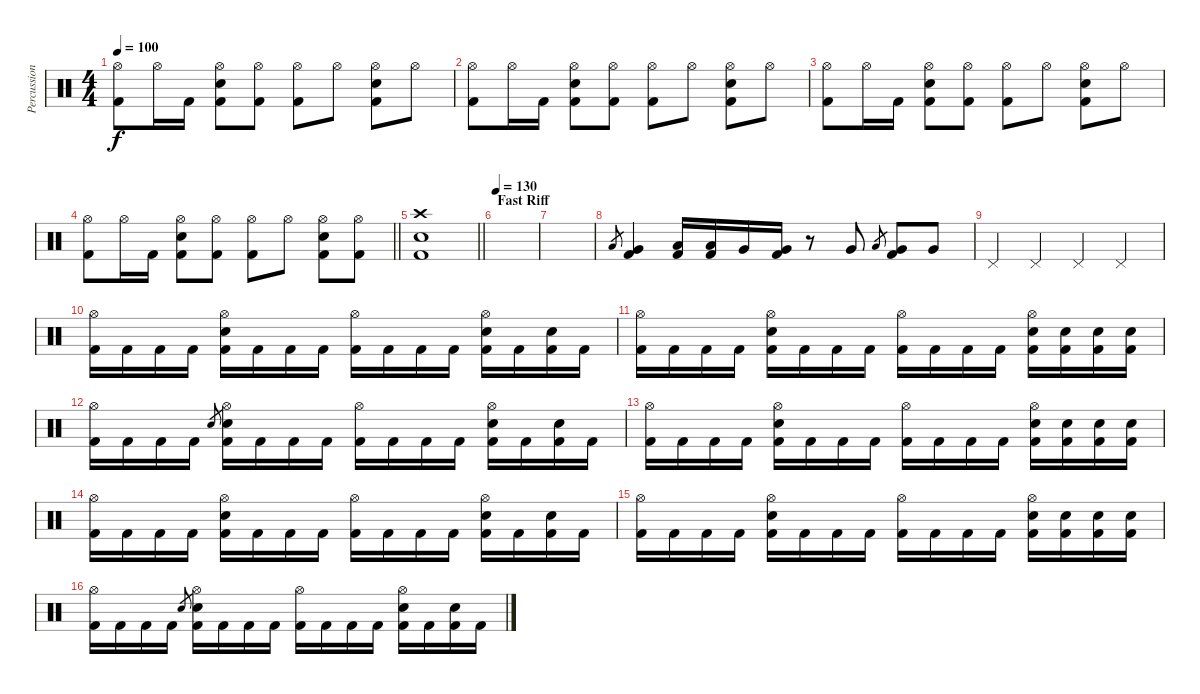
\track ("Percussion" "Percussion") {instrument percussion}
\staff {score}
\articulation defaults
\ts (4 4)
\tempo 100
\clef neutral
\ks c
("Hi-Hat (open)" "Kick (hit) 2").8{dy f} "Hi-Hat (open)".16 "Kick (hit) 2".16 ("Hi-Hat (open)" "Electric Snare (hit)" "Kick (hit) 2").8 ("Hi-Hat (open)" "Kick (hit) 2").8 ("Hi-Hat (open)" "Kick (hit) 2").8 "Hi-Hat (open)".8 ("Hi-Hat (open)" "Electric Snare (hit)" "Kick (hit) 2").8 "Hi-Hat (open)".8 |
("Hi-Hat (open)" "Kick (hit) 2").8 "Hi-Hat (open)".16 "Kick (hit) 2".16 ("Hi-Hat (open)" "Electric Snare (hit)" "Kick (hit) 2").8 ("Hi-Hat (open)" "Kick (hit) 2").8 ("Hi-Hat (open)" "Kick (hit) 2").8 "Hi-Hat (open)".8 ("Hi-Hat (open)" "Electric Snare (hit)" "Kick (hit) 2").8 "Hi-Hat (open)".8 |
("Hi-Hat (open)" "Kick (hit) 2").8 "Hi-Hat (open)".16 "Kick (hit) 2".16 ("Hi-Hat (open)" "Electric Snare (hit)" "Kick (hit) 2").8 ("Hi-Hat (open)" "Kick (hit) 2").8 ("Hi-Hat (open)" "Kick (hit) 2").8 "Hi-Hat (open)".8 ("Hi-Hat (open)" "Electric Snare (hit)" "Kick (hit) 2").8 "Hi-Hat (open)".8 |
\barLineRight lightlight
("Hi-Hat (open)" "Kick (hit) 2").8 "Hi-Hat (open)".16 "Kick (hit) 2".16 ("Hi-Hat (open)" "Electric Snare (hit)" "Kick (hit) 2").8 ("Hi-Hat (open)" "Kick (hit) 2").8 ("Hi-Hat (open)" "Kick (hit) 2").8 "Hi-Hat (open)".8 ("Hi-Hat (open)" "Electric Snare (hit)" "Kick (hit) 2").8 ("Hi-Hat (open)" "Kick (hit) 2").8 |
\barLineRight lightlight
("Crash high (hit)" "Electric Snare (hit)" "Kick (hit) 2").1 |
\section ("" "Fast Riff")
\tempo 130
|
|
"Low Tom (hit)".8{gr} ("Very Low Tom (hit)" "Kick (hit) 2").4 ("Low Tom (hit)" "Kick (hit) 2").16 ("Low Tom (hit)" "Kick (hit) 2").16 "Very Low Tom (hit)".16 ("Very Low Tom (hit)" "Kick (hit) 2").16 r.8 "Very Low Tom (hit)".8 "Low Tom (hit)".8{gr} ("Very Low Tom (hit)" "Kick (hit) 2").8 "Very Low Tom (hit)".8 |
"Pedal Hi-Hat (hit)".4 "Pedal Hi-Hat (hit)".4 "Pedal Hi-Hat (hit)".4 "Pedal Hi-Hat (hit)".4 |
("Hi-Hat (open)" "Kick (hit) 2").16 "Kick (hit) 2".16 "Kick (hit) 2".16 "Kick (hit) 2".16 ("Hi-Hat (open)" "Electric Snare (hit)" "Kick (hit) 2").16 "Kick (hit) 2".16 "Kick (hit) 2".16 "Kick (hit) 2".16 ("Hi-Hat (open)" "Kick (hit) 2").16 "Kick (hit) 2".16 "Kick (hit) 2".16 "Kick (hit) 2".16 ("Hi-Hat (open)" "Electric Snare (hit)" "Kick (hit) 2").16 "Kick (hit) 2".16 ("Electric Snare (hit)" "Kick (hit) 2").16 "Kick (hit) 2".16 |
("Hi-Hat (open)" "Kick (hit) 2").16 "Kick (hit) 2".16 "Kick (hit) 2".16 "Kick (hit) 2".16 ("Hi-Hat (open)" "Electric Snare (hit)" "Kick (hit) 2").16 "Kick (hit) 2".16 "Kick (hit) 2".16 "Kick (hit) 2".16 ("Hi-Hat (open)" "Kick (hit) 2").16 "Kick (hit) 2".16 "Kick (hit) 2".16 "Kick (hit) 2".16 ("Hi-Hat (open)" "Electric Snare (hit)" "Kick (hit) 2").16 ("Electric Snare (hit)" "Kick (hit) 2").16 ("Electric Snare (hit)" "Kick (hit) 2").16 ("Electric Snare (hit)" "Kick (hit) 2").16 |
("Hi-Hat (open)" "Kick (hit) 2").16 "Kick (hit) 2".16 "Kick (hit) 2".16 "Kick (hit) 2".16 "Electric Snare (hit)".8{gr} ("Hi-Hat (open)" "Electric Snare (hit)" "Kick (hit) 2").16 "Kick (hit) 2".16 "Kick (hit) 2".16 "Kick (hit) 2".16 ("Hi-Hat (open)" "Kick (hit) 2").16 "Kick (hit) 2".16 "Kick (hit) 2".16 "Kick (hit) 2".16 ("Hi-Hat (open)" "Electric Snare (hit)" "Kick (hit) 2").16 "Kick (hit) 2".16 ("Electric Snare (hit)" "Kick (hit) 2").16 "Kick (hit) 2".16 |
("Hi-Hat (open)" "Kick (hit) 2").16 "Kick (hit) 2".16 "Kick (hit) 2".16 "Kick (hit) 2".16 ("Hi-Hat (open)" "Electric Snare (hit)" "Kick (hit) 2").16 "Kick (hit) 2".16 "Kick (hit) 2".16 "Kick (hit) 2".16 ("Hi-Hat (open)" "Kick (hit) 2").16 "Kick (hit) 2".16 "Kick (hit) 2".16 "Kick (hit) 2".16 ("Hi-Hat (open)" "Electric Snare (hit)" "Kick (hit) 2").16 ("Electric Snare (hit)" "Kick (hit) 2").16 ("Electric Snare (hit)" "Kick (hit) 2").16 ("Electric Snare (hit)" "Kick (hit) 2").16 |
("Hi-Hat (open)" "Kick (hit) 2").16 "Kick (hit) 2".16 "Kick (hit) 2".16 "Kick (hit) 2".16 ("Hi-Hat (open)" "Electric Snare (hit)" "Kick (hit) 2").16 "Kick (hit) 2".16 "Kick (hit) 2".16 "Kick (hit) 2".16 ("Hi-Hat (open)" "Kick (hit) 2").16 "Kick (hit) 2".16 "Kick (hit) 2".16 "Kick (hit) 2".16 ("Hi-Hat (open)" "Electric Snare (hit)" "Kick (hit) 2").16 "Kick (hit) 2".16 ("Electric Snare (hit)" "Kick (hit) 2").16 "Kick (hit) 2".16 |
("Hi-Hat (open)" "Kick (hit) 2").16 "Kick (hit) 2".16 "Kick (hit) 2".16 "Kick (hit) 2".16 ("Hi-Hat (open)" "Electric Snare (hit)" "Kick (hit) 2").16 "Kick (hit) 2".16 "Kick (hit) 2".16 "Kick (hit) 2".16 ("Hi-Hat (open)" "Kick (hit) 2").16 "Kick (hit) 2".16 "Kick (hit) 2".16 "Kick (hit) 2".16 ("Hi-Hat (open)" "Electric Snare (hit)" "Kick (hit) 2").16 ("Electric Snare (hit)" "Kick (hit) 2").16 ("Electric Snare (hit)" "Kick (hit) 2").16 ("Electric Snare (hit)" "Kick (hit) 2").16 |
("Hi-Hat (open)" "Kick (hit) 2").16 "Kick (hit) 2".16 "Kick (hit) 2".16 "Kick (hit) 2".16 "Electric Snare (hit)".8{gr} ("Hi-Hat (open)" "Electric Snare (hit)" "Kick (hit) 2").16 "Kick (hit) 2".16 "Kick (hit) 2".16 "Kick (hit) 2".16 ("Hi-Hat (open)" "Kick (hit) 2").16 "Kick (hit) 2".16 "Kick (hit) 2".16 "Kick (hit) 2".16 ("Hi-Hat (open)" "Electric Snare (hit)" "Kick (hit) 2").16 "Kick (hit) 2".16 ("Electric Snare (hit)" "Kick (hit) 2").16 "Kick (hit) 2".16
